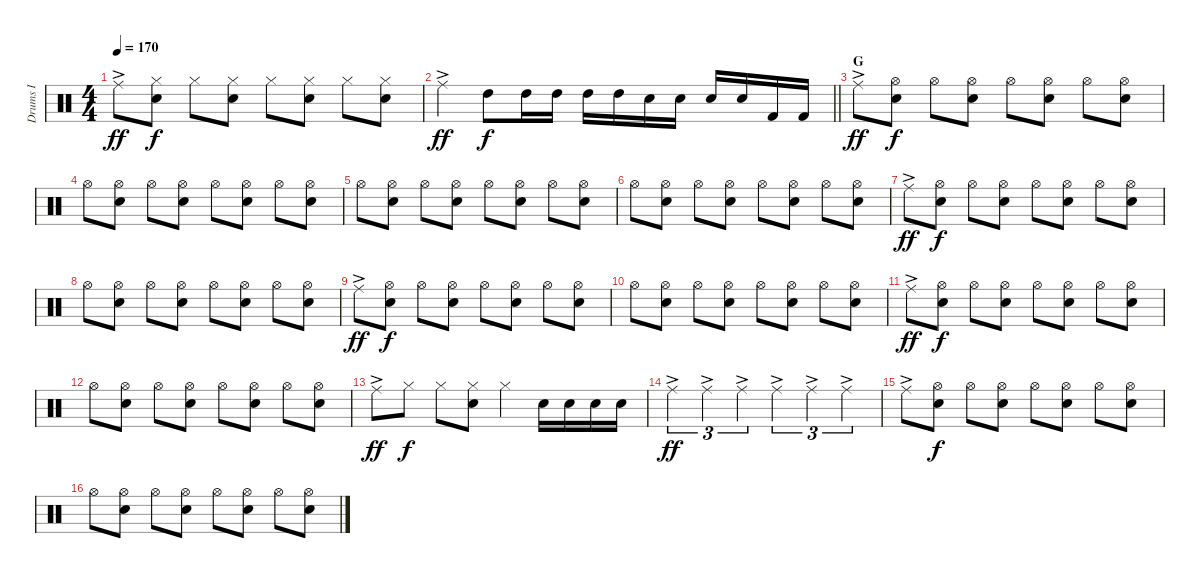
\track ("Drums I" "Drums I") {instrument percussion}
\staff {score}
\articulation defaults
\ts (4 4)
\tempo 170
\clef neutral
\ks c "Ride (middle)"{ac}.8{dy ff}
("Hi-Hat (closed)" "Snare (hit) 2").8{dy f} "Hi-Hat (closed)".8 ("Hi-Hat (closed)" "Snare (hit) 2").8 "Hi-Hat (closed)".8 ("Hi-Hat (closed)" "Snare (hit) 2").8 "Hi-Hat (closed)".8 ("Hi-Hat (closed)" "Snare (hit) 2").8 |
\barLineRight lightlight "Ride (middle)"{ac}.4{dy ff} "High Tom (hit)".8{dy f} "High Tom (hit)".16 "High Tom (hit)".16 "High Tom (hit)".16 "High Tom (hit)".16 "Snare (hit) 2".16 "Snare (hit) 2".16 "Snare (hit) 2".16 "Snare (hit) 2".16 "Kick (hit) 2".16 "Kick (hit) 2".16
|
\section ("" "G")
"Ride (middle)"{ac}.8{dy ff} ("Hi-Hat (open)" "Snare (hit) 2").8{dy f} "Hi-Hat (open)".8 ("Hi-Hat (open)" "Snare (hit) 2").8 "Hi-Hat (open)".8 ("Hi-Hat (open)" "Snare (hit) 2").8 "Hi-Hat (open)".8 ("Hi-Hat (open)" "Snare (hit) 2").8 |
"Hi-Hat (open)".8 ("Hi-Hat (open)" "Snare (hit) 2").8 "Hi-Hat (open)".8 ("Hi-Hat (open)" "Snare (hit) 2").8 "Hi-Hat (open)".8 ("Hi-Hat (open)" "Snare (hit) 2").8 "Hi-Hat (open)".8 ("Hi-Hat (open)" "Snare (hit) 2").8 |
"Hi-Hat (open)".8 ("Hi-Hat (open)" "Snare (hit) 2").8 "Hi-Hat (open)".8 ("Hi-Hat (open)" "Snare (hit) 2").8 "Hi-Hat (open)".8 ("Hi-Hat (open)" "Snare (hit) 2").8 "Hi-Hat (open)".8 ("Hi-Hat (open)" "Snare (hit) 2").8 |
"Hi-Hat (open)".8 ("Hi-Hat (open)" "Snare (hit) 2").8 "Hi-Hat (open)".8 ("Hi-Hat (open)" "Snare (hit) 2").8 "Hi-Hat (open)".8 ("Hi-Hat (open)" "Snare (hit) 2").8 "Hi-Hat (open)".8 ("Hi-Hat (open)" "Snare (hit) 2").8 |
"Ride (middle)"{ac}.8{dy ff} ("Hi-Hat (open)" "Snare (hit) 2").8{dy f} "Hi-Hat (open)".8 ("Hi-Hat (open)" "Snare (hit) 2").8 "Hi-Hat (open)".8 ("Hi-Hat (open)" "Snare (hit) 2").8 "Hi-Hat (open)".8 ("Hi-Hat (open)" "Snare (hit) 2").8 |
"Hi-Hat (open)".8 ("Hi-Hat (open)" "Snare (hit) 2").8 "Hi-Hat (open)".8 ("Hi-Hat (open)" "Snare (hit) 2").8 "Hi-Hat (open)".8 ("Hi-Hat (open)" "Snare (hit) 2").8 "Hi-Hat (open)".8 ("Hi-Hat (open)" "Snare (hit) 2").8 |
"Ride (middle)"{ac}.8{dy ff} ("Hi-Hat (open)" "Snare (hit) 2").8{dy f} "Hi-Hat (open)".8 ("Hi-Hat (open)" "Snare (hit) 2").8 "Hi-Hat (open)".8 ("Hi-Hat (open)" "Snare (hit) 2").8 "Hi-Hat (open)".8 ("Hi-Hat (open)" "Snare (hit) 2").8 |
"Hi-Hat (open)".8 ("Hi-Hat (open)" "Snare (hit) 2").8 "Hi-Hat (open)".8 ("Hi-Hat (open)" "Snare (hit) 2").8 "Hi-Hat (open)".8 ("Hi-Hat (open)" "Snare (hit) 2").8 "Hi-Hat (open)".8 ("Hi-Hat (open)" "Snare (hit) 2").8 |
"Ride (middle)"{ac}.8{dy ff} ("Hi-Hat (open)" "Snare (hit) 2").8{dy f} "Hi-Hat (open)".8 ("Hi-Hat (open)" "Snare (hit) 2").8 "Hi-Hat (open)".8 ("Hi-Hat (open)" "Snare (hit) 2").8 "Hi-Hat (open)".8 ("Hi-Hat (open)" "Snare (hit) 2").8 |
"Hi-Hat (open)".8 ("Hi-Hat (open)" "Snare (hit) 2").8 "Hi-Hat (open)".8 ("Hi-Hat (open)" "Snare (hit) 2").8 "Hi-Hat (open)".8 ("Hi-Hat (open)" "Snare (hit) 2").8 "Hi-Hat (open)".8 ("Hi-Hat (open)" "Snare (hit) 2").8 |
"Ride (middle)"{ac}.8{dy ff} "Hi-Hat (closed)".8{dy f} "Hi-Hat (closed)".8 ("Hi-Hat (closed)" "Snare (hit) 2").8 "Hi-Hat (closed)".4 "Snare (hit) 2".16 "Snare (hit) 2".16 "Snare (hit) 2".16 "Snare (hit) 2".16 |
"Ride (middle)"{ac}.4{tu (3 2) dy ff} "Ride (middle)"{ac}.4{tu (3 2)} "Ride (middle)"{ac}.4{tu (3 2)} "Ride (middle)"{ac}.4{tu (3 2)} "Ride (middle)"{ac}.4{tu (3 2)} "Ride (middle)"{ac}.4{tu (3 2)} |
"Ride (middle)"{ac}.8 ("Hi-Hat (open)" "Snare (hit) 2").8{dy f} "Hi-Hat (open)".8 ("Hi-Hat (open)" "Snare (hit) 2").8 "Hi-Hat (open)".8 ("Hi-Hat (open)" "Snare (hit) 2").8 "Hi-Hat (open)".8 ("Hi-Hat (open)" "Snare (hit) 2").8 |
"Hi-Hat (open)".8 ("Hi-Hat (open)" "Snare (hit) 2").8 "Hi-Hat (open)".8 ("Hi-Hat (open)" "Snare (hit) 2").8 "Hi-Hat (open)".8 ("Hi-Hat (open)" "Snare (hit) 2").8 "Hi-Hat (open)".8 ("Hi-Hat (open)" "Snare (hit) 2").8
